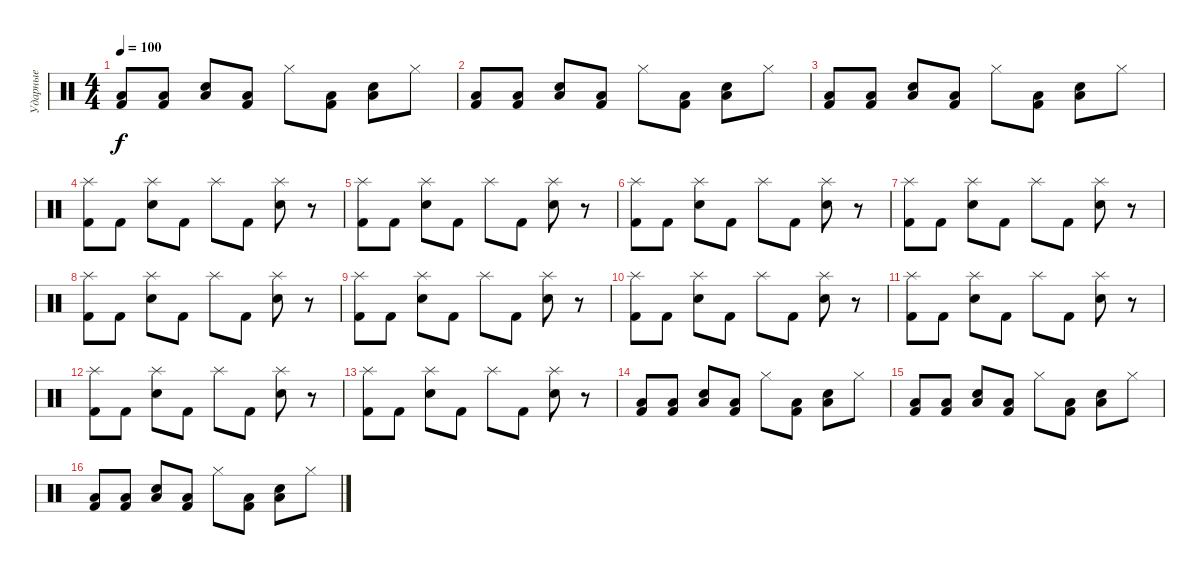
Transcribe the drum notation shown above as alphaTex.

\track ("Ударные" "Ударные") {instrument percussion}
\staff {score}
\articulation defaults
\ts (4 4)
\tempo 100
\clef neutral
\ks c
("Kick (hit) 2" "Low Floor Tom (hit)").8{dy f} ("Kick (hit) 2" "Low Floor Tom (hit)").8 ("Snare (hit) 2" "Low Floor Tom (hit)").8 ("Kick (hit) 2" "Low Floor Tom (hit)").8 "Hi-Hat (closed)".8 ("Kick (hit) 2" "Low Floor Tom (hit)").8 ("Snare (hit) 2" "Low Floor Tom (hit)").8 "Hi-Hat (closed)".8 |
("Kick (hit) 2" "Low Floor Tom (hit)").8 ("Kick (hit) 2" "Low Floor Tom (hit)").8 ("Snare (hit) 2" "Low Floor Tom (hit)").8 ("Kick (hit) 2" "Low Floor Tom (hit)").8 "Hi-Hat (closed)".8 ("Kick (hit) 2" "Low Floor Tom (hit)").8 ("Snare (hit) 2" "Low Floor Tom (hit)").8 "Hi-Hat (closed)".8 |
("Kick (hit) 2" "Low Floor Tom (hit)").8 ("Kick (hit) 2" "Low Floor Tom (hit)").8 ("Snare (hit) 2" "Low Floor Tom (hit)").8 ("Kick (hit) 2" "Low Floor Tom (hit)").8 "Hi-Hat (closed)".8 ("Kick (hit) 2" "Low Floor Tom (hit)").8 ("Snare (hit) 2" "Low Floor Tom (hit)").8 "Hi-Hat (closed)".8 |
("Kick (hit) 2" "Splash (hit)").8 "Kick (hit) 2".8 ("Snare (hit) 2" "Splash (hit)").8 "Kick (hit) 2".8 "Splash (hit)".8 "Kick (hit) 2".8 ("Snare (hit) 2" "Splash (hit)").8 r.8 |
("Kick (hit) 2" "Splash (hit)").8 "Kick (hit) 2".8 ("Snare (hit) 2" "Splash (hit)").8 "Kick (hit) 2".8 "Splash (hit)".8 "Kick (hit) 2".8 ("Snare (hit) 2" "Splash (hit)").8 r.8 |
("Kick (hit) 2" "Splash (hit)").8 "Kick (hit) 2".8 ("Snare (hit) 2" "Splash (hit)").8 "Kick (hit) 2".8 "Splash (hit)".8 "Kick (hit) 2".8 ("Snare (hit) 2" "Splash (hit)").8 r.8 |
("Kick (hit) 2" "Splash (hit)").8 "Kick (hit) 2".8 ("Snare (hit) 2" "Splash (hit)").8 "Kick (hit) 2".8 "Splash (hit)".8 "Kick (hit) 2".8 ("Snare (hit) 2" "Splash (hit)").8 r.8 |
("Kick (hit) 2" "Splash (hit)").8 "Kick (hit) 2".8 ("Snare (hit) 2" "Splash (hit)").8 "Kick (hit) 2".8 "Splash (hit)".8 "Kick (hit) 2".8 ("Snare (hit) 2" "Splash (hit)").8 r.8 |
("Kick (hit) 2" "Splash (hit)").8 "Kick (hit) 2".8 ("Snare (hit) 2" "Splash (hit)").8 "Kick (hit) 2".8 "Splash (hit)".8 "Kick (hit) 2".8 ("Snare (hit) 2" "Splash (hit)").8 r.8 |
("Kick (hit) 2" "Splash (hit)").8 "Kick (hit) 2".8 ("Snare (hit) 2" "Splash (hit)").8 "Kick (hit) 2".8 "Splash (hit)".8 "Kick (hit) 2".8 ("Snare (hit) 2" "Splash (hit)").8 r.8 |
("Kick (hit) 2" "Splash (hit)").8 "Kick (hit) 2".8 ("Snare (hit) 2" "Splash (hit)").8 "Kick (hit) 2".8 "Splash (hit)".8 "Kick (hit) 2".8 ("Snare (hit) 2" "Splash (hit)").8 r.8 |
("Kick (hit) 2" "Splash (hit)").8 "Kick (hit) 2".8 ("Snare (hit) 2" "Splash (hit)").8 "Kick (hit) 2".8 "Splash (hit)".8 "Kick (hit) 2".8 ("Snare (hit) 2" "Splash (hit)").8 r.8 |
("Kick (hit) 2" "Splash (hit)").8 "Kick (hit) 2".8 ("Snare (hit) 2" "Splash (hit)").8 "Kick (hit) 2".8 "Splash (hit)".8 "Kick (hit) 2".8 ("Snare (hit) 2" "Splash (hit)").8 r.8 |
("Kick (hit) 2" "Low Floor Tom (hit)").8 ("Kick (hit) 2" "Low Floor Tom (hit)").8 ("Snare (hit) 2" "Low Floor Tom (hit)").8 ("Kick (hit) 2" "Low Floor Tom (hit)").8 "Hi-Hat (closed)".8 ("Kick (hit) 2" "Low Floor Tom (hit)").8 ("Snare (hit) 2" "Low Floor Tom (hit)").8 "Hi-Hat (closed)".8 |
("Kick (hit) 2" "Low Floor Tom (hit)").8 ("Kick (hit) 2" "Low Floor Tom (hit)").8 ("Snare (hit) 2" "Low Floor Tom (hit)").8 ("Kick (hit) 2" "Low Floor Tom (hit)").8 "Hi-Hat (closed)".8 ("Kick (hit) 2" "Low Floor Tom (hit)").8 ("Snare (hit) 2" "Low Floor Tom (hit)").8 "Hi-Hat (closed)".8 |
("Kick (hit) 2" "Low Floor Tom (hit)").8 ("Kick (hit) 2" "Low Floor Tom (hit)").8 ("Snare (hit) 2" "Low Floor Tom (hit)").8 ("Kick (hit) 2" "Low Floor Tom (hit)").8 "Hi-Hat (closed)".8 ("Kick (hit) 2" "Low Floor Tom (hit)").8 ("Snare (hit) 2" "Low Floor Tom (hit)").8 "Hi-Hat (closed)".8
